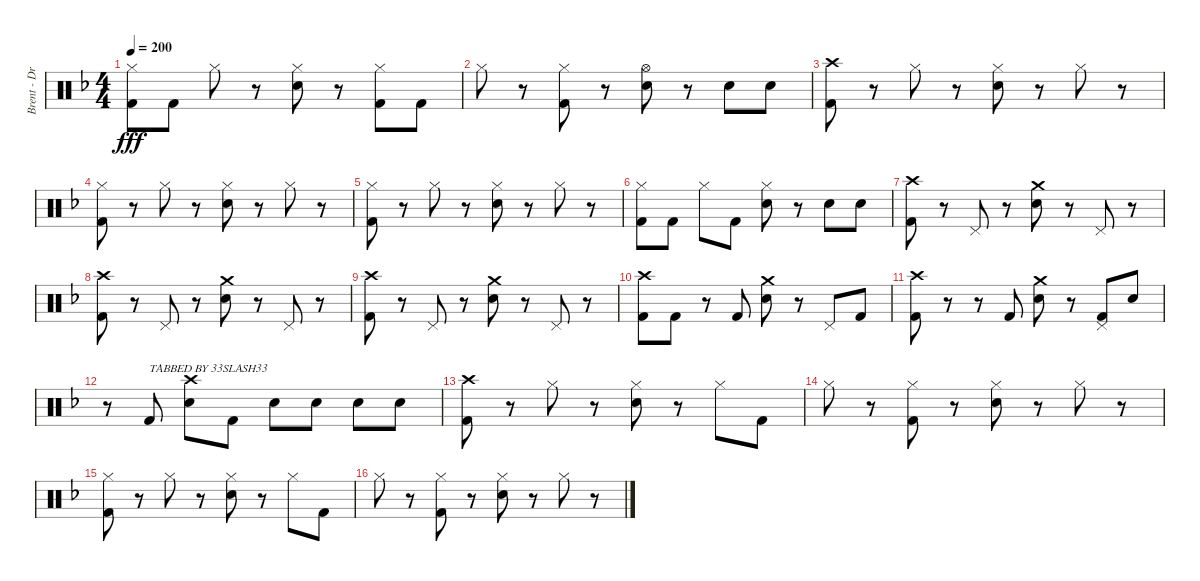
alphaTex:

\track ("Brent - Drums" "Brent - Dr") {instrument percussion}
\staff {score}
\articulation defaults
\ts (4 4)
\tempo 200
\clef neutral
\ks dminor
("Hi-Hat (closed)" "Kick (hit) 2").8{dy fff} "Kick (hit) 2".8 "Hi-Hat (closed)".8 r.8 ("Hi-Hat (closed)" "Snare (hit) 2").8 r.8 ("Hi-Hat (closed)" "Kick (hit) 2").8 "Kick (hit) 2".8 |
"Hi-Hat (closed)".8 r.8 ("Hi-Hat (closed)" "Kick (hit) 2").8 r.8 ("Hi-Hat (open)" "Snare (hit) 2").8 r.8 "Snare (hit) 2".8 "Snare (hit) 2".8 |
("Crash high (hit)" "Kick (hit) 2").8 r.8 "Hi-Hat (closed)".8 r.8 ("Hi-Hat (closed)" "Snare (hit) 2").8 r.8 "Hi-Hat (closed)".8 r.8 |
("Hi-Hat (closed)" "Kick (hit) 2").8 r.8 "Hi-Hat (closed)".8 r.8 ("Hi-Hat (closed)" "Snare (hit) 2").8 r.8 "Hi-Hat (closed)".8 r.8 |
("Hi-Hat (closed)" "Kick (hit) 2").8 r.8 "Hi-Hat (closed)".8 r.8 ("Hi-Hat (closed)" "Snare (hit) 2").8 r.8 "Hi-Hat (closed)".8 r.8 |
("Hi-Hat (closed)" "Kick (hit) 2").8 "Kick (hit) 2".8 "Hi-Hat (closed)".8 "Kick (hit) 2".8 ("Hi-Hat (closed)" "Snare (hit) 2").8 r.8 "Snare (hit) 2".8 "Snare (hit) 2".8 |
("Crash high (hit)" "Kick (hit) 2").8 r.8 "Pedal Hi-Hat (hit)".8 r.8 ("Crash medium (hit)" "Snare (hit) 2").8 r.8 "Pedal Hi-Hat (hit)".8 r.8 |
("Crash high (hit)" "Kick (hit) 2").8 r.8 "Pedal Hi-Hat (hit)".8 r.8 ("Crash medium (hit)" "Snare (hit) 2").8 r.8 "Pedal Hi-Hat (hit)".8 r.8 |
("Crash high (hit)" "Kick (hit) 2").8 r.8 "Pedal Hi-Hat (hit)".8 r.8 ("Crash medium (hit)" "Snare (hit) 2").8 r.8 "Pedal Hi-Hat (hit)".8 r.8 |
("Crash high (hit)" "Kick (hit) 2").8 "Kick (hit) 2".8 r.8 "Kick (hit) 2".8 ("Crash medium (hit)" "Snare (hit) 2").8 r.8 "Pedal Hi-Hat (hit)".8 "Kick (hit) 2".8 |
("Crash high (hit)" "Kick (hit) 2").8 r.8 r.8 "Kick (hit) 2".8 ("Crash medium (hit)" "Snare (hit) 2").8 r.8 ("Pedal Hi-Hat (hit)" "Kick (hit) 2").8 "Snare (hit) 2".8 |
r.8 "Kick (hit) 2".8{txt "TABBED BY 33SLASH33"} ("Crash high (hit)" "Snare (hit) 2").8 "Kick (hit) 2".8 "Snare (hit) 2".8 "Snare (hit) 2".8 "Snare (hit) 2".8 "Snare (hit) 2".8 |
("Crash high (hit)" "Kick (hit) 2").8 r.8 "Hi-Hat (closed)".8 r.8 ("Hi-Hat (closed)" "Snare (hit) 2").8 r.8 "Hi-Hat (closed)".8 "Kick (hit) 2".8 |
"Hi-Hat (closed)".8 r.8 ("Hi-Hat (closed)" "Kick (hit) 2").8 r.8 ("Hi-Hat (closed)" "Snare (hit) 2").8 r.8 "Hi-Hat (closed)".8 r.8 |
("Hi-Hat (closed)" "Kick (hit) 2").8 r.8 "Hi-Hat (closed)".8 r.8 ("Hi-Hat (closed)" "Snare (hit) 2").8 r.8 "Hi-Hat (closed)".8 "Kick (hit) 2".8 |
"Hi-Hat (closed)".8 r.8 ("Hi-Hat (closed)" "Kick (hit) 2").8 r.8 ("Hi-Hat (closed)" "Snare (hit) 2").8 r.8 "Hi-Hat (closed)".8 r.8
